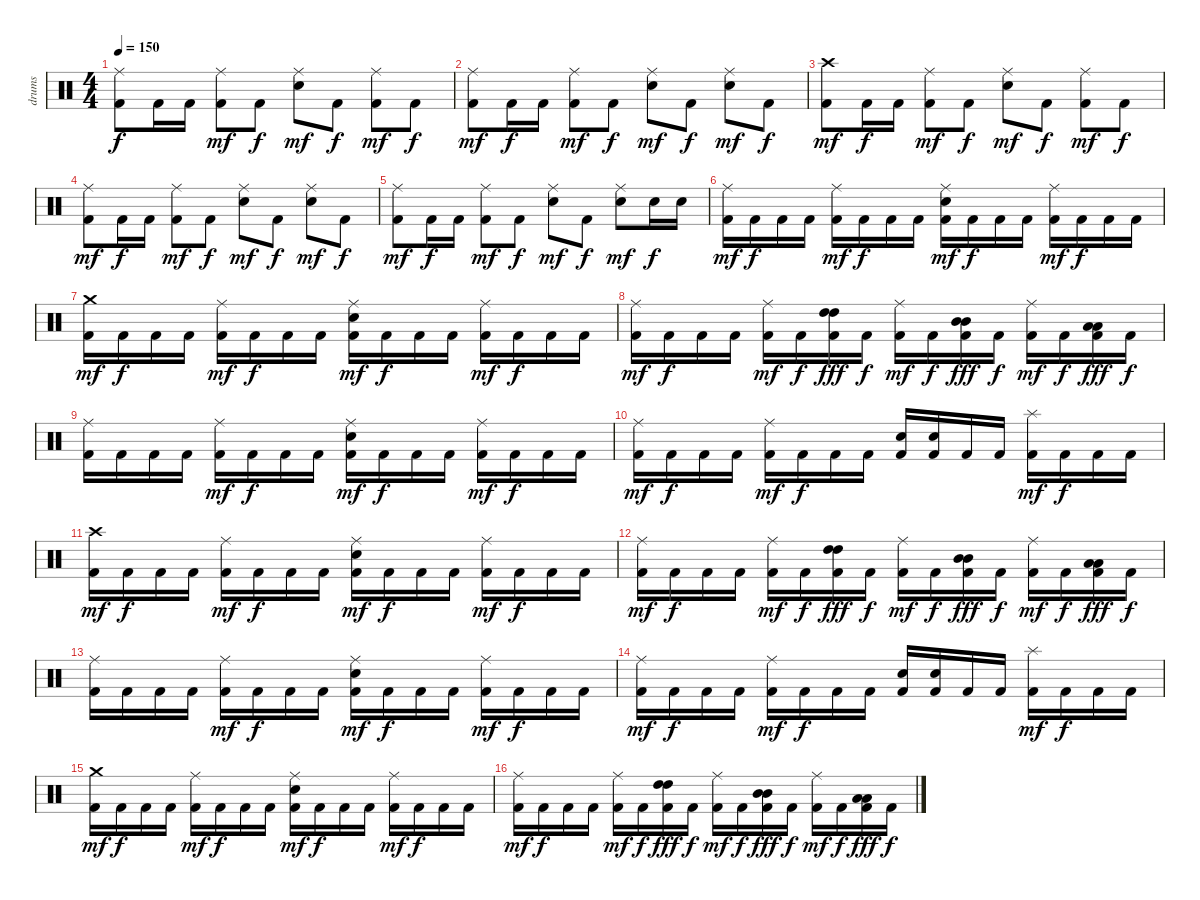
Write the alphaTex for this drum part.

\track ("drums" "drums") {instrument percussion}
\staff {score}
\articulation defaults
\ts (4 4)
\tempo 150
\clef neutral
\ks c
("Ride (middle)" "Kick (hit) 2").8{dy f} "Kick (hit) 2".16 "Kick (hit) 2".16 ("Ride (middle)" "Kick (hit) 2").8{dy mf} "Kick (hit) 2".8{dy f} ("Ride (middle)" "Snare (hit) 2").8{dy mf} "Kick (hit) 2".8{dy f} ("Ride (middle)" "Kick (hit) 2").8{dy mf} "Kick (hit) 2".8{dy f} |
("Ride (middle)" "Kick (hit) 2").8{dy mf} "Kick (hit) 2".16{dy f} "Kick (hit) 2".16 ("Ride (middle)" "Kick (hit) 2").8{dy mf} "Kick (hit) 2".8{dy f} ("Ride (middle)" "Snare (hit) 2").8{dy mf} "Kick (hit) 2".8{dy f} ("Ride (middle)" "Snare (hit) 2").8{dy mf} "Kick (hit) 2".8{dy f} |
("Crash high (hit)" "Kick (hit) 2").8{dy mf} "Kick (hit) 2".16{dy f} "Kick (hit) 2".16 ("Ride (middle)" "Kick (hit) 2").8{dy mf} "Kick (hit) 2".8{dy f} ("Ride (middle)" "Snare (hit) 2").8{dy mf} "Kick (hit) 2".8{dy f} ("Ride (middle)" "Kick (hit) 2").8{dy mf} "Kick (hit) 2".8{dy f} |
("Ride (middle)" "Kick (hit) 2").8{dy mf} "Kick (hit) 2".16{dy f} "Kick (hit) 2".16 ("Ride (middle)" "Kick (hit) 2").8{dy mf} "Kick (hit) 2".8{dy f} ("Ride (middle)" "Snare (hit) 2").8{dy mf} "Kick (hit) 2".8{dy f} ("Ride (middle)" "Snare (hit) 2").8{dy mf} "Kick (hit) 2".8{dy f} |
("Ride (middle)" "Kick (hit) 2").8{dy mf} "Kick (hit) 2".16{dy f} "Kick (hit) 2".16 ("Ride (middle)" "Kick (hit) 2").8{dy mf} "Kick (hit) 2".8{dy f} ("Ride (middle)" "Snare (hit) 2").8{dy mf} "Kick (hit) 2".8{dy f} ("Ride (middle)" "Snare (hit) 2").8{dy mf} "Snare (hit) 2".16{dy f} "Snare (hit) 2".16 |
("Ride (middle)" "Kick (hit) 2").16{dy mf} "Kick (hit) 2".16{dy f} "Kick (hit) 2".16 "Kick (hit) 2".16 ("Ride (middle)" "Kick (hit) 2").16{dy mf} "Kick (hit) 2".16{dy f} "Kick (hit) 2".16 "Kick (hit) 2".16 ("Ride (middle)" "Snare (hit) 2" "Kick (hit) 2").16{dy mf} "Kick (hit) 2".16{dy f} "Kick (hit) 2".16 "Kick (hit) 2".16 ("Ride (middle)" "Kick (hit) 2").16{dy mf} "Kick (hit) 2".16{dy f} "Kick (hit) 2".16 "Kick (hit) 2".16 |
("Crash medium (hit)" "Kick (hit) 2").16{dy mf} "Kick (hit) 2".16{dy f} "Kick (hit) 2".16 "Kick (hit) 2".16 ("Ride (middle)" "Kick (hit) 2").16{dy mf} "Kick (hit) 2".16{dy f} "Kick (hit) 2".16 "Kick (hit) 2".16 ("Ride (middle)" "Snare (hit) 2" "Kick (hit) 2").16{dy mf} "Kick (hit) 2".16{dy f} "Kick (hit) 2".16 "Kick (hit) 2".16 ("Ride (middle)" "Kick (hit) 2").16{dy mf} "Kick (hit) 2".16{dy f} "Kick (hit) 2".16 "Kick (hit) 2".16 |
("Ride (middle)" "Kick (hit) 2").16{dy mf} "Kick (hit) 2".16{dy f} "Kick (hit) 2".16 "Kick (hit) 2".16 ("Ride (middle)" "Kick (hit) 2").16{dy mf} "Kick (hit) 2".16{dy f} ("High Tom (hit)" "High Tom (hit)" "Kick (hit) 2").16{dy fff} "Kick (hit) 2".16{dy f} ("Ride (middle)" "Kick (hit) 2").16{dy mf} "Kick (hit) 2".16{dy f} ("Mid Tom (hit)" "Mid Tom (hit)" "Kick (hit) 2").16{dy fff} "Kick (hit) 2".16{dy f} ("Ride (middle)" "Kick (hit) 2").16{dy mf} "Kick (hit) 2".16{dy f} ("Low Tom (hit)" "Low Tom (hit)" "Kick (hit) 2").16{dy fff} "Kick (hit) 2".16{dy f} |
("Ride (middle)" "Kick (hit) 2").16 "Kick (hit) 2".16 "Kick (hit) 2".16 "Kick (hit) 2".16 ("Ride (middle)" "Kick (hit) 2").16{dy mf} "Kick (hit) 2".16{dy f} "Kick (hit) 2".16 "Kick (hit) 2".16 ("Ride (middle)" "Snare (hit) 2" "Kick (hit) 2").16{dy mf} "Kick (hit) 2".16{dy f} "Kick (hit) 2".16 "Kick (hit) 2".16 ("Ride (middle)" "Kick (hit) 2").16{dy mf} "Kick (hit) 2".16{dy f} "Kick (hit) 2".16 "Kick (hit) 2".16 |
("Ride (middle)" "Kick (hit) 2").16{dy mf} "Kick (hit) 2".16{dy f} "Kick (hit) 2".16 "Kick (hit) 2".16 ("Ride (middle)" "Kick (hit) 2").16{dy mf} "Kick (hit) 2".16{dy f} "Kick (hit) 2".16 "Kick (hit) 2".16 ("Snare (hit) 2" "Kick (hit) 2").16 ("Snare (hit) 2" "Kick (hit) 2").16 "Kick (hit) 2".16 "Kick (hit) 2".16 ("Splash (hit)" "Kick (hit) 2").16{dy mf} "Kick (hit) 2".16{dy f} "Kick (hit) 2".16 "Kick (hit) 2".16 |
("Crash high (hit)" "Kick (hit) 2").16{dy mf} "Kick (hit) 2".16{dy f} "Kick (hit) 2".16 "Kick (hit) 2".16 ("Ride (middle)" "Kick (hit) 2").16{dy mf} "Kick (hit) 2".16{dy f} "Kick (hit) 2".16 "Kick (hit) 2".16 ("Ride (middle)" "Snare (hit) 2" "Kick (hit) 2").16{dy mf} "Kick (hit) 2".16{dy f} "Kick (hit) 2".16 "Kick (hit) 2".16 ("Ride (middle)" "Kick (hit) 2").16{dy mf} "Kick (hit) 2".16{dy f} "Kick (hit) 2".16 "Kick (hit) 2".16 |
("Ride (middle)" "Kick (hit) 2").16{dy mf} "Kick (hit) 2".16{dy f} "Kick (hit) 2".16 "Kick (hit) 2".16 ("Ride (middle)" "Kick (hit) 2").16{dy mf} "Kick (hit) 2".16{dy f} ("High Tom (hit)" "High Tom (hit)" "Kick (hit) 2").16{dy fff} "Kick (hit) 2".16{dy f} ("Ride (middle)" "Kick (hit) 2").16{dy mf} "Kick (hit) 2".16{dy f} ("Mid Tom (hit)" "Mid Tom (hit)" "Kick (hit) 2").16{dy fff} "Kick (hit) 2".16{dy f} ("Ride (middle)" "Kick (hit) 2").16{dy mf} "Kick (hit) 2".16{dy f} ("Low Tom (hit)" "Low Tom (hit)" "Kick (hit) 2").16{dy fff} "Kick (hit) 2".16{dy f} |
("Ride (middle)" "Kick (hit) 2").16 "Kick (hit) 2".16 "Kick (hit) 2".16 "Kick (hit) 2".16 ("Ride (middle)" "Kick (hit) 2").16{dy mf} "Kick (hit) 2".16{dy f} "Kick (hit) 2".16 "Kick (hit) 2".16 ("Ride (middle)" "Snare (hit) 2" "Kick (hit) 2").16{dy mf} "Kick (hit) 2".16{dy f} "Kick (hit) 2".16 "Kick (hit) 2".16 ("Ride (middle)" "Kick (hit) 2").16{dy mf} "Kick (hit) 2".16{dy f} "Kick (hit) 2".16 "Kick (hit) 2".16 |
("Ride (middle)" "Kick (hit) 2").16{dy mf} "Kick (hit) 2".16{dy f} "Kick (hit) 2".16 "Kick (hit) 2".16 ("Ride (middle)" "Kick (hit) 2").16{dy mf} "Kick (hit) 2".16{dy f} "Kick (hit) 2".16 "Kick (hit) 2".16 ("Snare (hit) 2" "Kick (hit) 2").16 ("Snare (hit) 2" "Kick (hit) 2").16 "Kick (hit) 2".16 "Kick (hit) 2".16 ("Splash (hit)" "Kick (hit) 2").16{dy mf} "Kick (hit) 2".16{dy f} "Kick (hit) 2".16 "Kick (hit) 2".16 |
("Crash medium (hit)" "Kick (hit) 2").16{dy mf} "Kick (hit) 2".16{dy f} "Kick (hit) 2".16 "Kick (hit) 2".16 ("Ride (middle)" "Kick (hit) 2").16{dy mf} "Kick (hit) 2".16{dy f} "Kick (hit) 2".16 "Kick (hit) 2".16 ("Ride (middle)" "Snare (hit) 2" "Kick (hit) 2").16{dy mf} "Kick (hit) 2".16{dy f} "Kick (hit) 2".16 "Kick (hit) 2".16 ("Ride (middle)" "Kick (hit) 2").16{dy mf} "Kick (hit) 2".16{dy f} "Kick (hit) 2".16 "Kick (hit) 2".16 |
("Ride (middle)" "Kick (hit) 2").16{dy mf} "Kick (hit) 2".16{dy f} "Kick (hit) 2".16 "Kick (hit) 2".16 ("Ride (middle)" "Kick (hit) 2").16{dy mf} "Kick (hit) 2".16{dy f} ("High Tom (hit)" "High Tom (hit)" "Kick (hit) 2").16{dy fff} "Kick (hit) 2".16{dy f} ("Ride (middle)" "Kick (hit) 2").16{dy mf} "Kick (hit) 2".16{dy f} ("Mid Tom (hit)" "Mid Tom (hit)" "Kick (hit) 2").16{dy fff} "Kick (hit) 2".16{dy f} ("Ride (middle)" "Kick (hit) 2").16{dy mf} "Kick (hit) 2".16{dy f} ("Low Tom (hit)" "Low Tom (hit)" "Kick (hit) 2").16{dy fff} "Kick (hit) 2".16{dy f}
